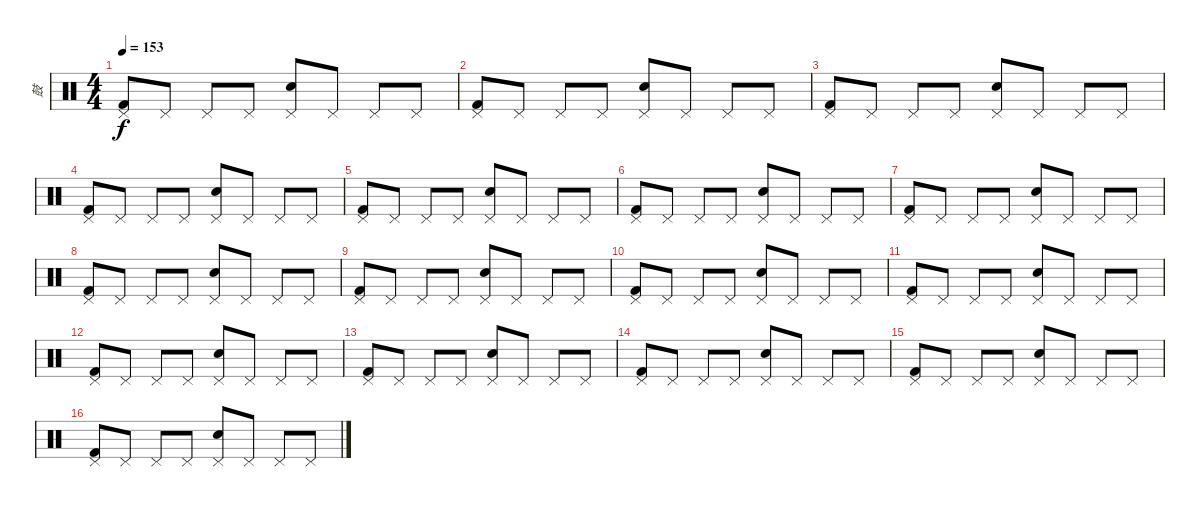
\track ("鼓" "鼓") {instrument percussion}
\staff {score}
\articulation defaults
\ts (4 4)
\tempo 153
\clef neutral
\ks c
("Pedal Hi-Hat (hit)" "Kick (hit) 2").8{dy f} "Pedal Hi-Hat (hit)".8 "Pedal Hi-Hat (hit)".8 "Pedal Hi-Hat (hit)".8 ("Pedal Hi-Hat (hit)" "Electric Snare (hit)").8 "Pedal Hi-Hat (hit)".8 "Pedal Hi-Hat (hit)".8 "Pedal Hi-Hat (hit)".8 |
("Pedal Hi-Hat (hit)" "Kick (hit) 2").8 "Pedal Hi-Hat (hit)".8 "Pedal Hi-Hat (hit)".8 "Pedal Hi-Hat (hit)".8 ("Pedal Hi-Hat (hit)" "Electric Snare (hit)").8 "Pedal Hi-Hat (hit)".8 "Pedal Hi-Hat (hit)".8 "Pedal Hi-Hat (hit)".8 |
("Pedal Hi-Hat (hit)" "Kick (hit) 2").8 "Pedal Hi-Hat (hit)".8 "Pedal Hi-Hat (hit)".8 "Pedal Hi-Hat (hit)".8 ("Pedal Hi-Hat (hit)" "Electric Snare (hit)").8 "Pedal Hi-Hat (hit)".8 "Pedal Hi-Hat (hit)".8 "Pedal Hi-Hat (hit)".8 |
("Pedal Hi-Hat (hit)" "Kick (hit) 2").8 "Pedal Hi-Hat (hit)".8 "Pedal Hi-Hat (hit)".8 "Pedal Hi-Hat (hit)".8 ("Pedal Hi-Hat (hit)" "Electric Snare (hit)").8 "Pedal Hi-Hat (hit)".8 "Pedal Hi-Hat (hit)".8 "Pedal Hi-Hat (hit)".8 |
("Pedal Hi-Hat (hit)" "Kick (hit) 2").8 "Pedal Hi-Hat (hit)".8 "Pedal Hi-Hat (hit)".8 "Pedal Hi-Hat (hit)".8 ("Pedal Hi-Hat (hit)" "Electric Snare (hit)").8 "Pedal Hi-Hat (hit)".8 "Pedal Hi-Hat (hit)".8 "Pedal Hi-Hat (hit)".8 |
("Pedal Hi-Hat (hit)" "Kick (hit) 2").8 "Pedal Hi-Hat (hit)".8 "Pedal Hi-Hat (hit)".8 "Pedal Hi-Hat (hit)".8 ("Pedal Hi-Hat (hit)" "Electric Snare (hit)").8 "Pedal Hi-Hat (hit)".8 "Pedal Hi-Hat (hit)".8 "Pedal Hi-Hat (hit)".8 |
("Pedal Hi-Hat (hit)" "Kick (hit) 2").8 "Pedal Hi-Hat (hit)".8 "Pedal Hi-Hat (hit)".8 "Pedal Hi-Hat (hit)".8 ("Pedal Hi-Hat (hit)" "Electric Snare (hit)").8 "Pedal Hi-Hat (hit)".8 "Pedal Hi-Hat (hit)".8 "Pedal Hi-Hat (hit)".8 |
("Pedal Hi-Hat (hit)" "Kick (hit) 2").8 "Pedal Hi-Hat (hit)".8 "Pedal Hi-Hat (hit)".8 "Pedal Hi-Hat (hit)".8 ("Pedal Hi-Hat (hit)" "Electric Snare (hit)").8 "Pedal Hi-Hat (hit)".8 "Pedal Hi-Hat (hit)".8 "Pedal Hi-Hat (hit)".8 |
("Pedal Hi-Hat (hit)" "Kick (hit) 2").8 "Pedal Hi-Hat (hit)".8 "Pedal Hi-Hat (hit)".8 "Pedal Hi-Hat (hit)".8 ("Pedal Hi-Hat (hit)" "Electric Snare (hit)").8 "Pedal Hi-Hat (hit)".8 "Pedal Hi-Hat (hit)".8 "Pedal Hi-Hat (hit)".8 |
("Pedal Hi-Hat (hit)" "Kick (hit) 2").8 "Pedal Hi-Hat (hit)".8 "Pedal Hi-Hat (hit)".8 "Pedal Hi-Hat (hit)".8 ("Pedal Hi-Hat (hit)" "Electric Snare (hit)").8 "Pedal Hi-Hat (hit)".8 "Pedal Hi-Hat (hit)".8 "Pedal Hi-Hat (hit)".8 |
("Pedal Hi-Hat (hit)" "Kick (hit) 2").8 "Pedal Hi-Hat (hit)".8 "Pedal Hi-Hat (hit)".8 "Pedal Hi-Hat (hit)".8 ("Pedal Hi-Hat (hit)" "Electric Snare (hit)").8 "Pedal Hi-Hat (hit)".8 "Pedal Hi-Hat (hit)".8 "Pedal Hi-Hat (hit)".8 |
("Pedal Hi-Hat (hit)" "Kick (hit) 2").8 "Pedal Hi-Hat (hit)".8 "Pedal Hi-Hat (hit)".8 "Pedal Hi-Hat (hit)".8 ("Pedal Hi-Hat (hit)" "Electric Snare (hit)").8 "Pedal Hi-Hat (hit)".8 "Pedal Hi-Hat (hit)".8 "Pedal Hi-Hat (hit)".8 |
("Pedal Hi-Hat (hit)" "Kick (hit) 2").8 "Pedal Hi-Hat (hit)".8 "Pedal Hi-Hat (hit)".8 "Pedal Hi-Hat (hit)".8 ("Pedal Hi-Hat (hit)" "Electric Snare (hit)").8 "Pedal Hi-Hat (hit)".8 "Pedal Hi-Hat (hit)".8 "Pedal Hi-Hat (hit)".8 |
("Pedal Hi-Hat (hit)" "Kick (hit) 2").8 "Pedal Hi-Hat (hit)".8 "Pedal Hi-Hat (hit)".8 "Pedal Hi-Hat (hit)".8 ("Pedal Hi-Hat (hit)" "Electric Snare (hit)").8 "Pedal Hi-Hat (hit)".8 "Pedal Hi-Hat (hit)".8 "Pedal Hi-Hat (hit)".8 |
("Pedal Hi-Hat (hit)" "Kick (hit) 2").8 "Pedal Hi-Hat (hit)".8 "Pedal Hi-Hat (hit)".8 "Pedal Hi-Hat (hit)".8 ("Pedal Hi-Hat (hit)" "Electric Snare (hit)").8 "Pedal Hi-Hat (hit)".8 "Pedal Hi-Hat (hit)".8 "Pedal Hi-Hat (hit)".8 |
("Pedal Hi-Hat (hit)" "Kick (hit) 2").8 "Pedal Hi-Hat (hit)".8 "Pedal Hi-Hat (hit)".8 "Pedal Hi-Hat (hit)".8 ("Pedal Hi-Hat (hit)" "Electric Snare (hit)").8 "Pedal Hi-Hat (hit)".8 "Pedal Hi-Hat (hit)".8 "Pedal Hi-Hat (hit)".8
